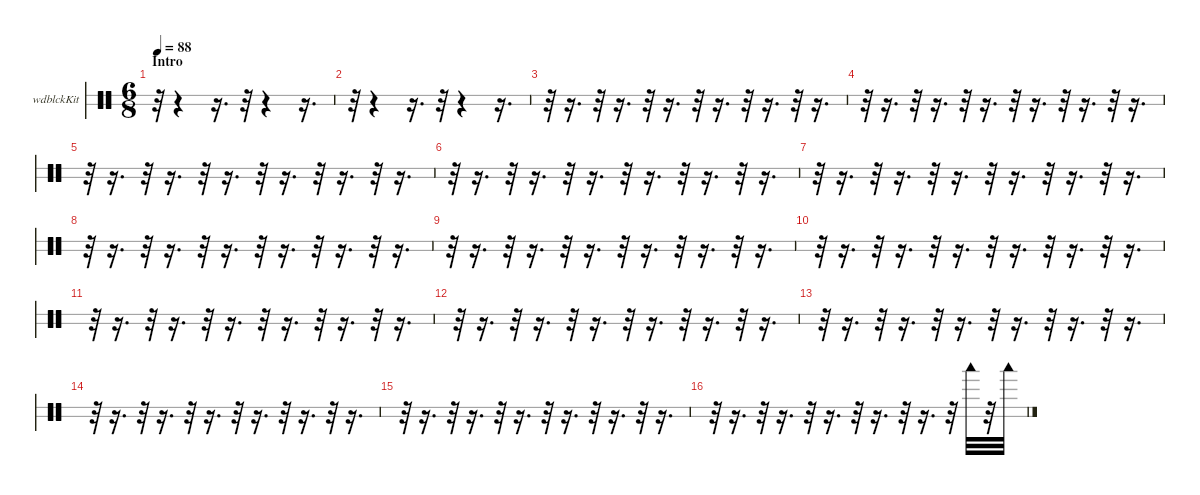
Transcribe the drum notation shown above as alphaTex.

\hideDynamics
\bracketExtendMode nobrackets
\firstSystemTrackNameOrientation horizontal
\otherSystemsTrackNameOrientation horizontal
\track ("Woodblock" "wdblckKit") {instrument percussion}
\staff {score 2}
\articulation defaults
\ts (6 8)
\section ("" "Intro")
\tempo 88
\clef neutral
\ks c
r.32{dy mf} r.4 r.16{d} r.32 r.4 r.16{d} |
r.32 r.4 r.16{d} r.32 r.4 r.16{d} |
r.32 r.16{d} r.32 r.16{d} r.32 r.16{d} r.32 r.16{d} r.32 r.16{d} r.32 r.16{d} |
r.32 r.16{d} r.32 r.16{d} r.32 r.16{d} r.32 r.16{d} r.32 r.16{d} r.32 r.16{d} |
r.32 r.16{d} r.32 r.16{d} r.32 r.16{d} r.32 r.16{d} r.32 r.16{d} r.32 r.16{d} |
r.32 r.16{d} r.32 r.16{d} r.32 r.16{d} r.32 r.16{d} r.32 r.16{d} r.32 r.16{d} |
r.32 r.16{d} r.32 r.16{d} r.32 r.16{d} r.32 r.16{d} r.32 r.16{d} r.32 r.16{d} |
r.32 r.16{d} r.32 r.16{d} r.32 r.16{d} r.32 r.16{d} r.32 r.16{d} r.32 r.16{d} |
r.32 r.16{d} r.32 r.16{d} r.32 r.16{d} r.32 r.16{d} r.32 r.16{d} r.32 r.16{d} |
r.32 r.16{d} r.32 r.16{d} r.32 r.16{d} r.32 r.16{d} r.32 r.16{d} r.32 r.16{d} |
r.32 r.16{d} r.32 r.16{d} r.32 r.16{d} r.32 r.16{d} r.32 r.16{d} r.32 r.16{d} |
r.32 r.16{d} r.32 r.16{d} r.32 r.16{d} r.32 r.16{d} r.32 r.16{d} r.32 r.16{d} |
r.32 r.16{d} r.32 r.16{d} r.32 r.16{d} r.32 r.16{d} r.32 r.16{d} r.32 r.16{d} |
r.32 r.16{d} r.32 r.16{d} r.32 r.16{d} r.32 r.16{d} r.32 r.16{d} r.32 r.16{d} |
r.32 r.16{d} r.32 r.16{d} r.32 r.16{d} r.32 r.16{d} r.32 r.16{d} r.32 r.16{d} |
r.32 r.16{d} r.32 r.16{d} r.32 r.16{d} r.32 r.16{d} r.32 r.16{d} r.32 "Woodblock low (hit)".32 r.32 "Woodblock low (hit)".32{dy f}
